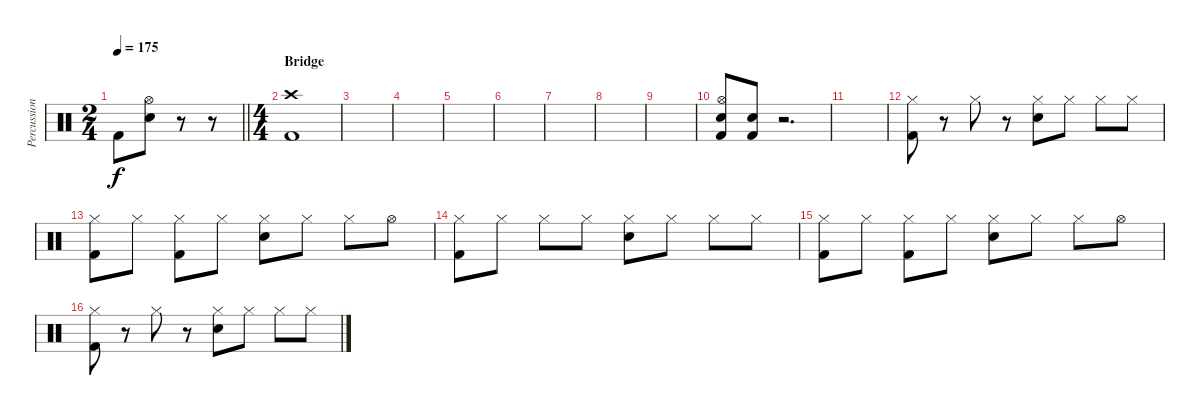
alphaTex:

\track ("Percussion" "Percussion") {instrument percussion}
\staff {score}
\articulation defaults
\ts (2 4)
\tempo 175
\clef neutral
\barLineRight lightlight
\ks c "Kick (hit) 2".8{dy f}
("Hi-Hat (open)" "Snare (hit) 2").8 r.8 r.8 |
\ts (4 4)
\section ("" "Bridge")
("Crash high (hit)" "Kick (hit) 2").1 |
|
|
|
|
|
|
|
("Hi-Hat (open)" "Snare (hit) 2" "Kick (hit) 2").8 ("Snare (hit) 2" "Kick (hit) 2").8 r.2{d} |
|
("Hi-Hat (closed)" "Kick (hit) 2").8 r.8 "Hi-Hat (closed)".8 r.8 ("Hi-Hat (closed)" "Snare (hit) 2").8 "Hi-Hat (closed)".8 "Hi-Hat (closed)".8 "Hi-Hat (closed)".8 |
("Hi-Hat (closed)" "Kick (hit) 2").8 "Hi-Hat (closed)".8 ("Hi-Hat (closed)" "Kick (hit) 2").8 "Hi-Hat (closed)".8 ("Hi-Hat (closed)" "Snare (hit) 2").8 "Hi-Hat (closed)".8 "Hi-Hat (closed)".8 "Hi-Hat (open)".8 |
("Hi-Hat (closed)" "Kick (hit) 2").8 "Hi-Hat (closed)".8 "Hi-Hat (closed)".8 "Hi-Hat (closed)".8 ("Hi-Hat (closed)" "Snare (hit) 2").8 "Hi-Hat (closed)".8 "Hi-Hat (closed)".8 "Hi-Hat (closed)".8 |
("Hi-Hat (closed)" "Kick (hit) 2").8 "Hi-Hat (closed)".8 ("Hi-Hat (closed)" "Kick (hit) 2").8 "Hi-Hat (closed)".8 ("Hi-Hat (closed)" "Snare (hit) 2").8 "Hi-Hat (closed)".8 "Hi-Hat (closed)".8 "Hi-Hat (open)".8 |
("Hi-Hat (closed)" "Kick (hit) 2").8 r.8 "Hi-Hat (closed)".8 r.8 ("Hi-Hat (closed)" "Snare (hit) 2").8 "Hi-Hat (closed)".8 "Hi-Hat (closed)".8 "Hi-Hat (closed)".8
